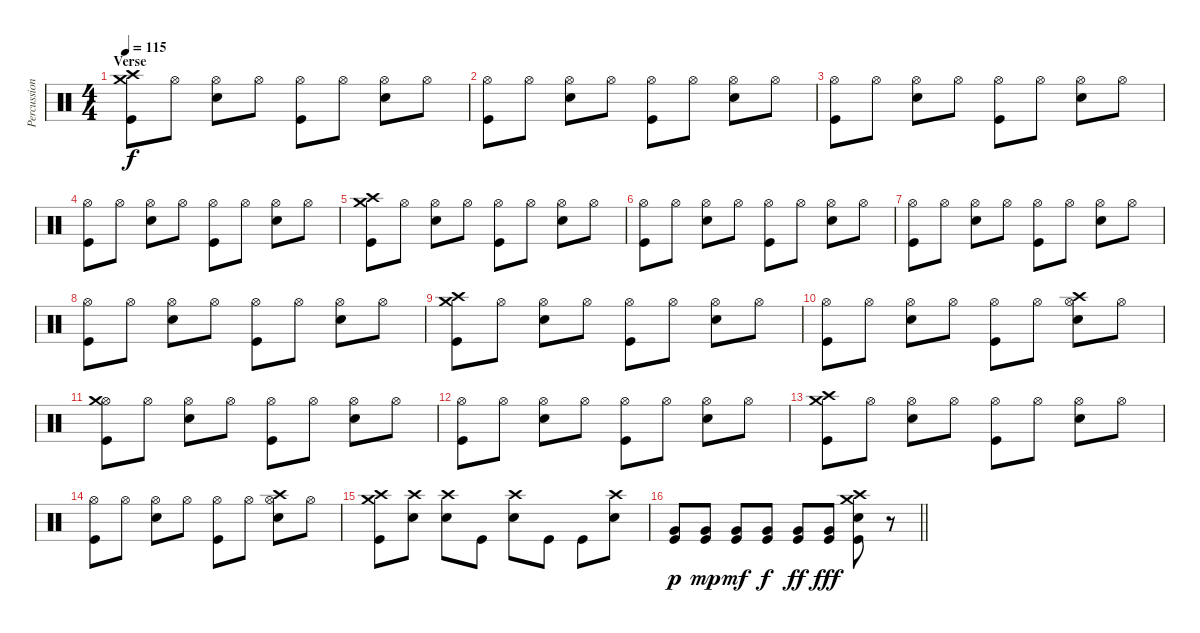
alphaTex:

\track ("Percussion" "Percussion") {instrument percussion}
\staff {score}
\articulation defaults
\ts (4 4)
\section ("" "Verse")
\tempo 115
\clef neutral
\ks c
("Crash high (hit)" "Crash medium (hit)" "Kick (hit)").8{dy f} "Hi-Hat (open)".8 ("Hi-Hat (open)" "Electric Snare (hit)").8 "Hi-Hat (open)".8 ("Hi-Hat (open)" "Kick (hit)").8 "Hi-Hat (open)".8 ("Hi-Hat (open)" "Electric Snare (hit)").8 "Hi-Hat (open)".8 |
("Hi-Hat (open)" "Kick (hit)").8 "Hi-Hat (open)".8 ("Hi-Hat (open)" "Electric Snare (hit)").8 "Hi-Hat (open)".8 ("Hi-Hat (open)" "Kick (hit)").8 "Hi-Hat (open)".8 ("Hi-Hat (open)" "Electric Snare (hit)").8 "Hi-Hat (open)".8 |
("Hi-Hat (open)" "Kick (hit)").8 "Hi-Hat (open)".8 ("Hi-Hat (open)" "Electric Snare (hit)").8 "Hi-Hat (open)".8 ("Hi-Hat (open)" "Kick (hit)").8 "Hi-Hat (open)".8 ("Hi-Hat (open)" "Electric Snare (hit)").8 "Hi-Hat (open)".8 |
("Hi-Hat (open)" "Kick (hit)").8 "Hi-Hat (open)".8 ("Hi-Hat (open)" "Electric Snare (hit)").8 "Hi-Hat (open)".8 ("Hi-Hat (open)" "Kick (hit)").8 "Hi-Hat (open)".8 ("Hi-Hat (open)" "Electric Snare (hit)").8 "Hi-Hat (open)".8 |
("Crash high (hit)" "Crash medium (hit)" "Kick (hit)").8 "Hi-Hat (open)".8 ("Hi-Hat (open)" "Electric Snare (hit)").8 "Hi-Hat (open)".8 ("Hi-Hat (open)" "Kick (hit)").8 "Hi-Hat (open)".8 ("Hi-Hat (open)" "Electric Snare (hit)").8 "Hi-Hat (open)".8 |
("Hi-Hat (open)" "Kick (hit)").8 "Hi-Hat (open)".8 ("Hi-Hat (open)" "Electric Snare (hit)").8 "Hi-Hat (open)".8 ("Hi-Hat (open)" "Kick (hit)").8 "Hi-Hat (open)".8 ("Hi-Hat (open)" "Electric Snare (hit)").8 "Hi-Hat (open)".8 |
("Hi-Hat (open)" "Kick (hit)").8 "Hi-Hat (open)".8 ("Hi-Hat (open)" "Electric Snare (hit)").8 "Hi-Hat (open)".8 ("Hi-Hat (open)" "Kick (hit)").8 "Hi-Hat (open)".8 ("Hi-Hat (open)" "Electric Snare (hit)").8 "Hi-Hat (open)".8 |
("Hi-Hat (open)" "Kick (hit)").8 "Hi-Hat (open)".8 ("Hi-Hat (open)" "Electric Snare (hit)").8 "Hi-Hat (open)".8 ("Hi-Hat (open)" "Kick (hit)").8 "Hi-Hat (open)".8 ("Hi-Hat (open)" "Electric Snare (hit)").8 "Hi-Hat (open)".8 |
("Crash high (hit)" "Crash medium (hit)" "Kick (hit)").8 "Hi-Hat (open)".8 ("Hi-Hat (open)" "Electric Snare (hit)").8 "Hi-Hat (open)".8 ("Hi-Hat (open)" "Kick (hit)").8 "Hi-Hat (open)".8 ("Hi-Hat (open)" "Electric Snare (hit)").8 "Hi-Hat (open)".8 |
("Hi-Hat (open)" "Kick (hit)").8 "Hi-Hat (open)".8 ("Hi-Hat (open)" "Electric Snare (hit)").8 "Hi-Hat (open)".8 ("Hi-Hat (open)" "Kick (hit)").8 "Hi-Hat (open)".8 ("Hi-Hat (open)" "Crash high (hit)" "Electric Snare (hit)").8 "Hi-Hat (open)".8 |
("Hi-Hat (open)" "Crash medium (hit)" "Kick (hit)").8 "Hi-Hat (open)".8 ("Hi-Hat (open)" "Electric Snare (hit)").8 "Hi-Hat (open)".8 ("Hi-Hat (open)" "Kick (hit)").8 "Hi-Hat (open)".8 ("Hi-Hat (open)" "Electric Snare (hit)").8 "Hi-Hat (open)".8 |
("Hi-Hat (open)" "Kick (hit)").8 "Hi-Hat (open)".8 ("Hi-Hat (open)" "Electric Snare (hit)").8 "Hi-Hat (open)".8 ("Hi-Hat (open)" "Kick (hit)").8 "Hi-Hat (open)".8 ("Hi-Hat (open)" "Electric Snare (hit)").8 "Hi-Hat (open)".8 |
("Crash high (hit)" "Crash medium (hit)" "Kick (hit)").8 "Hi-Hat (open)".8 ("Hi-Hat (open)" "Electric Snare (hit)").8 "Hi-Hat (open)".8 ("Hi-Hat (open)" "Kick (hit)").8 "Hi-Hat (open)".8 ("Hi-Hat (open)" "Electric Snare (hit)").8 "Hi-Hat (open)".8 |
("Hi-Hat (open)" "Kick (hit)").8 "Hi-Hat (open)".8 ("Hi-Hat (open)" "Electric Snare (hit)").8 "Hi-Hat (open)".8 ("Hi-Hat (open)" "Kick (hit)").8 "Hi-Hat (open)".8 ("Hi-Hat (open)" "Crash high (hit)" "Electric Snare (hit)").8 "Hi-Hat (open)".8 |
("Crash high (hit)" "Crash medium (hit)" "Kick (hit)").8 ("Crash high (hit)" "Electric Snare (hit)").8 ("Crash high (hit)" "Electric Snare (hit)").8 "Kick (hit)".8 ("Crash high (hit)" "Electric Snare (hit)").8 "Kick (hit)".8 "Kick (hit)".8 ("Crash high (hit)" "Electric Snare (hit)").8 |
\barLineRight lightlight
("Very Low Tom (hit)" "Kick (hit)").8{dy p} ("Very Low Tom (hit)" "Kick (hit)").8{dy mp} ("Very Low Tom (hit)" "Kick (hit)").8{dy mf} ("Very Low Tom (hit)" "Kick (hit)").8{dy f} ("Very Low Tom (hit)" "Kick (hit)").8{dy ff} ("Very Low Tom (hit)" "Kick (hit)").8{dy fff} ("Kick (hit)" "Crash medium (hit)" "Crash high (hit)" "Electric Snare (hit)").8 r.8
